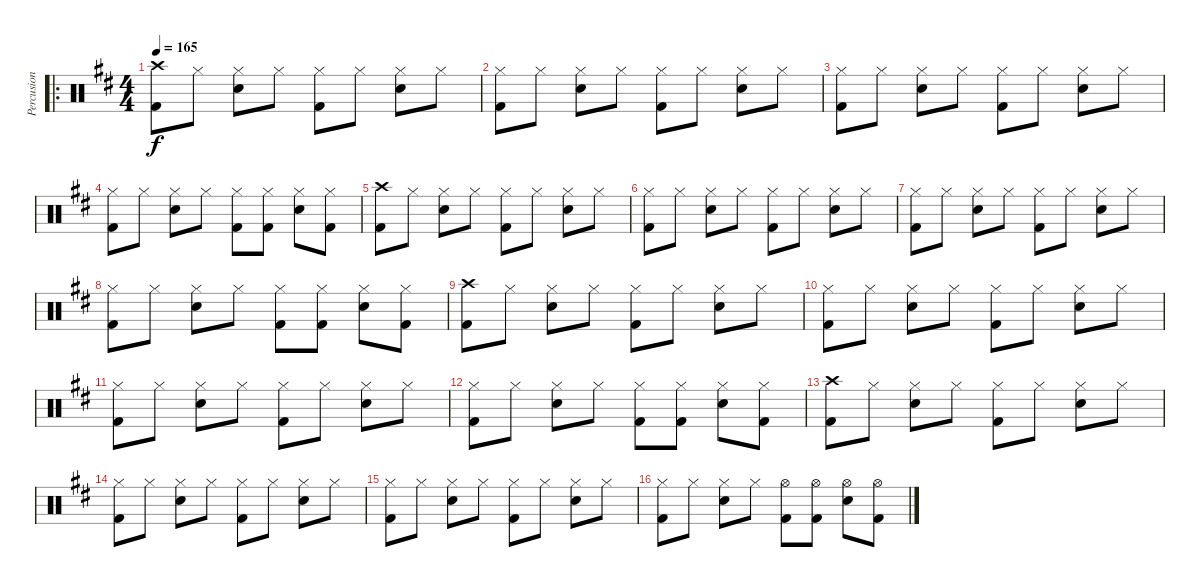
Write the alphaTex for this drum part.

\track ("Percusion" "Percusion") {instrument percussion}
\staff {score}
\articulation defaults
\ro
\ts (4 4)
\tempo 165
\clef neutral
\ks d
("Crash high (hit)" "Kick (hit) 2").8{dy f} "Hi-Hat (closed)".8 ("Hi-Hat (closed)" "Electric Snare (hit)").8 "Hi-Hat (closed)".8 ("Hi-Hat (closed)" "Kick (hit) 2").8 "Hi-Hat (closed)".8 ("Hi-Hat (closed)" "Electric Snare (hit)").8 "Hi-Hat (closed)".8 |
("Hi-Hat (closed)" "Kick (hit) 2").8 "Hi-Hat (closed)".8 ("Hi-Hat (closed)" "Electric Snare (hit)").8 "Hi-Hat (closed)".8 ("Hi-Hat (closed)" "Kick (hit) 2").8 "Hi-Hat (closed)".8 ("Hi-Hat (closed)" "Electric Snare (hit)").8 "Hi-Hat (closed)".8 |
("Hi-Hat (closed)" "Kick (hit) 2").8 "Hi-Hat (closed)".8 ("Hi-Hat (closed)" "Electric Snare (hit)").8 "Hi-Hat (closed)".8 ("Hi-Hat (closed)" "Kick (hit) 2").8 "Hi-Hat (closed)".8 ("Hi-Hat (closed)" "Electric Snare (hit)").8 "Hi-Hat (closed)".8 |
("Hi-Hat (closed)" "Kick (hit) 2").8 "Hi-Hat (closed)".8 ("Hi-Hat (closed)" "Electric Snare (hit)").8 "Hi-Hat (closed)".8 ("Hi-Hat (closed)" "Kick (hit) 2").8 ("Hi-Hat (closed)" "Kick (hit) 2").8 ("Hi-Hat (closed)" "Electric Snare (hit)").8 ("Hi-Hat (closed)" "Kick (hit) 2").8 |
("Crash high (hit)" "Kick (hit) 2").8 "Hi-Hat (closed)".8 ("Hi-Hat (closed)" "Electric Snare (hit)").8 "Hi-Hat (closed)".8 ("Hi-Hat (closed)" "Kick (hit) 2").8 "Hi-Hat (closed)".8 ("Hi-Hat (closed)" "Electric Snare (hit)").8 "Hi-Hat (closed)".8 |
("Hi-Hat (closed)" "Kick (hit) 2").8 "Hi-Hat (closed)".8 ("Hi-Hat (closed)" "Electric Snare (hit)").8 "Hi-Hat (closed)".8 ("Hi-Hat (closed)" "Kick (hit) 2").8 "Hi-Hat (closed)".8 ("Hi-Hat (closed)" "Electric Snare (hit)").8 "Hi-Hat (closed)".8 |
("Hi-Hat (closed)" "Kick (hit) 2").8 "Hi-Hat (closed)".8 ("Hi-Hat (closed)" "Electric Snare (hit)").8 "Hi-Hat (closed)".8 ("Hi-Hat (closed)" "Kick (hit) 2").8 "Hi-Hat (closed)".8 ("Hi-Hat (closed)" "Electric Snare (hit)").8 "Hi-Hat (closed)".8 |
("Hi-Hat (closed)" "Kick (hit) 2").8 "Hi-Hat (closed)".8 ("Hi-Hat (closed)" "Electric Snare (hit)").8 "Hi-Hat (closed)".8 ("Hi-Hat (closed)" "Kick (hit) 2").8 ("Hi-Hat (closed)" "Kick (hit) 2").8 ("Hi-Hat (closed)" "Electric Snare (hit)").8 ("Hi-Hat (closed)" "Kick (hit) 2").8 |
("Crash high (hit)" "Kick (hit) 2").8 "Hi-Hat (closed)".8 ("Hi-Hat (closed)" "Electric Snare (hit)").8 "Hi-Hat (closed)".8 ("Hi-Hat (closed)" "Kick (hit) 2").8 "Hi-Hat (closed)".8 ("Hi-Hat (closed)" "Electric Snare (hit)").8 "Hi-Hat (closed)".8 |
("Hi-Hat (closed)" "Kick (hit) 2").8 "Hi-Hat (closed)".8 ("Hi-Hat (closed)" "Electric Snare (hit)").8 "Hi-Hat (closed)".8 ("Hi-Hat (closed)" "Kick (hit) 2").8 "Hi-Hat (closed)".8 ("Hi-Hat (closed)" "Electric Snare (hit)").8 "Hi-Hat (closed)".8 |
("Hi-Hat (closed)" "Kick (hit) 2").8 "Hi-Hat (closed)".8 ("Hi-Hat (closed)" "Electric Snare (hit)").8 "Hi-Hat (closed)".8 ("Hi-Hat (closed)" "Kick (hit) 2").8 "Hi-Hat (closed)".8 ("Hi-Hat (closed)" "Electric Snare (hit)").8 "Hi-Hat (closed)".8 |
("Hi-Hat (closed)" "Kick (hit) 2").8 "Hi-Hat (closed)".8 ("Hi-Hat (closed)" "Electric Snare (hit)").8 "Hi-Hat (closed)".8 ("Hi-Hat (closed)" "Kick (hit) 2").8 ("Hi-Hat (closed)" "Kick (hit) 2").8 ("Hi-Hat (closed)" "Electric Snare (hit)").8 ("Hi-Hat (closed)" "Kick (hit) 2").8 |
("Crash high (hit)" "Kick (hit) 2").8 "Hi-Hat (closed)".8 ("Hi-Hat (closed)" "Electric Snare (hit)").8 "Hi-Hat (closed)".8 ("Hi-Hat (closed)" "Kick (hit) 2").8 "Hi-Hat (closed)".8 ("Hi-Hat (closed)" "Electric Snare (hit)").8 "Hi-Hat (closed)".8 |
("Hi-Hat (closed)" "Kick (hit) 2").8 "Hi-Hat (closed)".8 ("Hi-Hat (closed)" "Electric Snare (hit)").8 "Hi-Hat (closed)".8 ("Hi-Hat (closed)" "Kick (hit) 2").8 "Hi-Hat (closed)".8 ("Hi-Hat (closed)" "Electric Snare (hit)").8 "Hi-Hat (closed)".8 |
("Hi-Hat (closed)" "Kick (hit) 2").8 "Hi-Hat (closed)".8 ("Hi-Hat (closed)" "Electric Snare (hit)").8 "Hi-Hat (closed)".8 ("Hi-Hat (closed)" "Kick (hit) 2").8 "Hi-Hat (closed)".8 ("Hi-Hat (closed)" "Electric Snare (hit)").8 "Hi-Hat (closed)".8 |
("Hi-Hat (closed)" "Kick (hit) 2").8 "Hi-Hat (closed)".8 ("Hi-Hat (closed)" "Electric Snare (hit)").8 "Hi-Hat (closed)".8 ("Hi-Hat (open)" "Kick (hit) 2").8 ("Hi-Hat (open)" "Kick (hit) 2").8 ("Hi-Hat (open)" "Electric Snare (hit)").8 ("Hi-Hat (open)" "Kick (hit) 2").8
